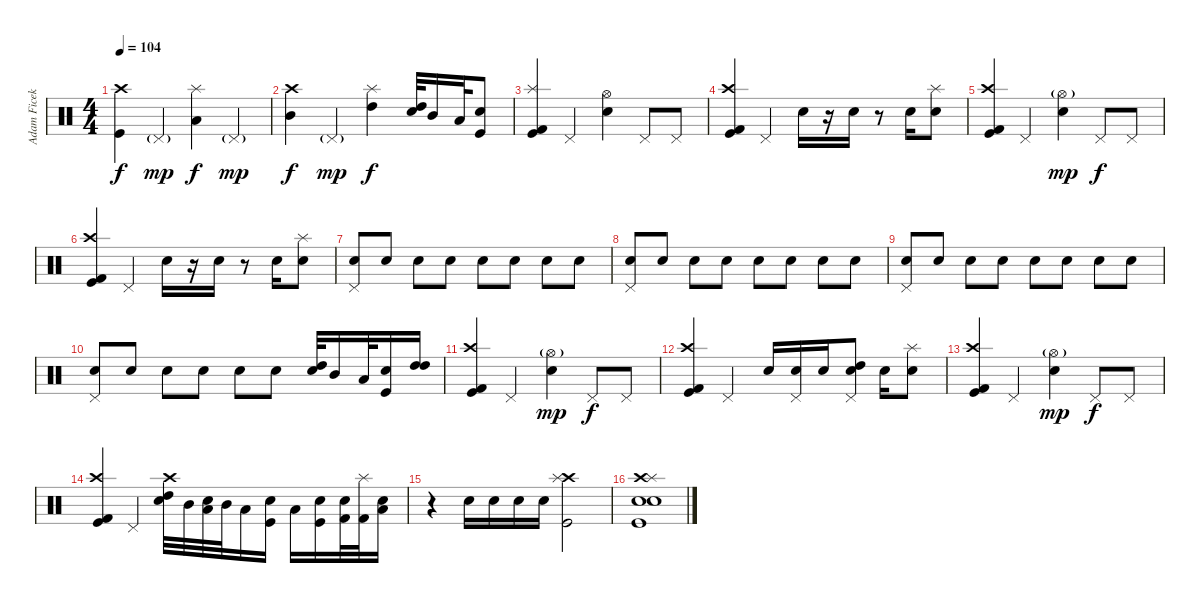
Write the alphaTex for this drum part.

\track ("Adam Ficek" "Adam Ficek") {instrument percussion}
\staff {score}
\articulation defaults
\ts (4 4)
\tempo 104
\clef neutral
\ks c
("Kick (hit)" "Crash high (hit)").4{dy f} "Pedal Hi-Hat (hit)"{g}.4{dy mp} ("Low Tom (hit)" "Splash (hit)").4{dy f} "Pedal Hi-Hat (hit)"{g}.4{dy mp} |
("Mid Tom (hit)" "Crash high (hit)").4{dy f} "Pedal Hi-Hat (hit)"{g}.4{dy mp} ("High Tom (hit)" "Splash (hit)").4{dy f} ("High Tom (hit)" "Snare (hit) 2").32 "Mid Tom (hit)".16 "Low Tom (hit)".32 ("Kick (hit)" "Snare (hit) 2").8 |
("Kick (hit) 2" "Kick (hit)" "Splash (hit)").4 "Pedal Hi-Hat (hit)".4 ("Snare (hit) 2" "Hi-Hat (open)").4 "Pedal Hi-Hat (hit)".8 "Pedal Hi-Hat (hit)".8 |
("Kick (hit) 2" "Kick (hit)" "Crash high (hit)").4 "Pedal Hi-Hat (hit)".4 "Snare (hit) 2".16 r.16 "Snare (hit) 2".16 r.8 "Snare (hit) 2".16 ("Snare (hit) 2" "Splash (hit)").8 |
("Kick (hit) 2" "Kick (hit)" "Crash high (hit)").4 "Pedal Hi-Hat (hit)".4 ("Snare (hit) 2" "Hi-Hat (open)"{g}).4{dy mp} "Pedal Hi-Hat (hit)".8{dy f} "Pedal Hi-Hat (hit)".8 |
("Kick (hit) 2" "Kick (hit)" "Crash high (hit)").4 "Pedal Hi-Hat (hit)".4 "Snare (hit) 2".16 r.16 "Snare (hit) 2".16 r.8 "Snare (hit) 2".16 ("Snare (hit) 2" "Splash (hit)").8 |
("Snare (hit) 2" "Pedal Hi-Hat (hit)").8 "Snare (hit) 2".8 "Snare (hit) 2".8 "Snare (hit) 2".8 "Snare (hit) 2".8 "Snare (hit) 2".8 "Snare (hit) 2".8 "Snare (hit) 2".8 |
("Snare (hit) 2" "Pedal Hi-Hat (hit)").8 "Snare (hit) 2".8 "Snare (hit) 2".8 "Snare (hit) 2".8 "Snare (hit) 2".8 "Snare (hit) 2".8 "Snare (hit) 2".8 "Snare (hit) 2".8 |
("Snare (hit) 2" "Pedal Hi-Hat (hit)").8 "Snare (hit) 2".8 "Snare (hit) 2".8 "Snare (hit) 2".8 "Snare (hit) 2".8 "Snare (hit) 2".8 "Snare (hit) 2".8 "Snare (hit) 2".8 |
("Snare (hit) 2" "Pedal Hi-Hat (hit)").8 "Snare (hit) 2".8 "Snare (hit) 2".8 "Snare (hit) 2".8 "Snare (hit) 2".8 "Snare (hit) 2".8 ("High Tom (hit)" "Snare (hit) 2").32 "Mid Tom (hit)".16 "Low Tom (hit)".32 ("Kick (hit)" "Snare (hit) 2").16 ("High Tom (hit)" "High Tom (hit)").16 |
("Kick (hit) 2" "Kick (hit)" "Crash high (hit)").4 "Pedal Hi-Hat (hit)".4 ("Snare (hit) 2" "Hi-Hat (open)"{g}).4{dy mp} "Pedal Hi-Hat (hit)".8{dy f} "Pedal Hi-Hat (hit)".8 |
("Kick (hit) 2" "Kick (hit)" "Crash high (hit)").4 "Pedal Hi-Hat (hit)".4 "Snare (hit) 2".16 ("Snare (hit) 2" "Pedal Hi-Hat (hit)").16 "Snare (hit) 2".16 ("Snare (hit) 2" "Pedal Hi-Hat (hit)" "High Tom (hit)").8 "Snare (hit) 2".16 ("Snare (hit) 2" "Splash (hit)").8 |
("Kick (hit) 2" "Kick (hit)" "Crash high (hit)").4 "Pedal Hi-Hat (hit)".4 ("Snare (hit) 2" "Hi-Hat (open)"{g}).4{dy mp} "Pedal Hi-Hat (hit)".8{dy f} "Pedal Hi-Hat (hit)".8 |
("Kick (hit) 2" "Kick (hit)" "Crash high (hit)").4 "Pedal Hi-Hat (hit)".4 ("High Tom (hit)" "Snare (hit) 2" "Crash high (hit)").32 "Mid Tom (hit)".32 ("Low Tom (hit)" "Snare (hit) 2").32 "Mid Tom (hit)".32 "Low Tom (hit)".16 ("Kick (hit)" "Snare (hit) 2").16 "Low Tom (hit)".16 ("Kick (hit)" "Snare (hit) 2").16 ("Kick (hit) 2" "Snare (hit) 2").32 ("Kick (hit) 2" "Splash (hit)").32 ("Low Tom (hit)" "Snare (hit) 2").16 |
r.4 "Snare (hit) 2".16 "Snare (hit) 2".16 "Snare (hit) 2".16 "Snare (hit) 2".16 ("Kick (hit)" "Crash high (hit)" "Splash (hit)").2 |
("Crash high (hit)" "Snare (hit) 2" "Splash (hit)" "Kick (hit)" "Hand Clap (hit)").1
